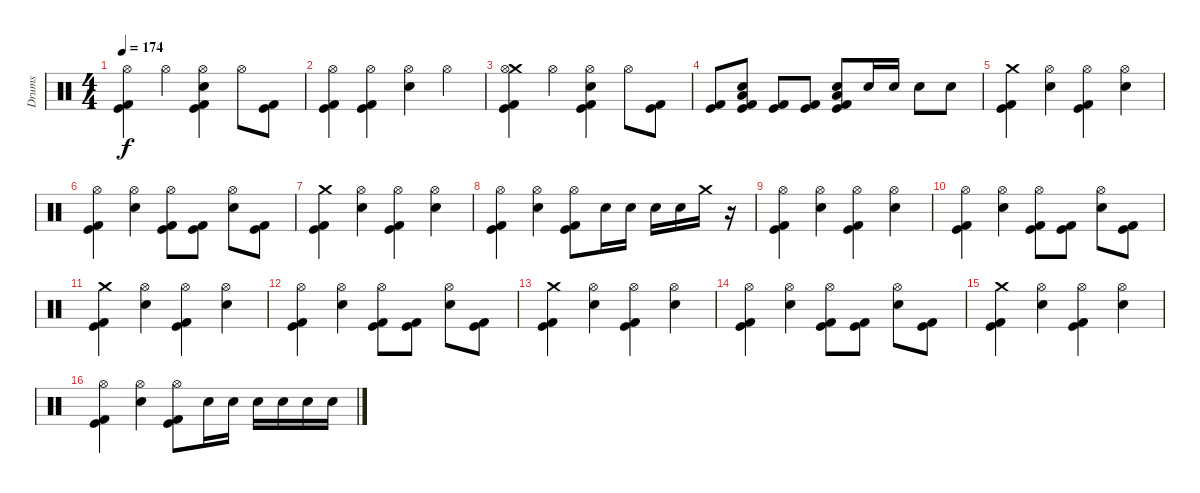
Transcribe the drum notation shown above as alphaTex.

\track ("Drums" "Drums") {instrument percussion}
\staff {score}
\articulation defaults
\ts (4 4)
\tempo 174
\clef neutral
\ks c
("Hi-Hat (open)" "Kick (hit) 2" "Kick (hit)").4{dy f} "Hi-Hat (open)".4 ("Hi-Hat (open)" "Electric Snare (hit)" "Kick (hit) 2" "Kick (hit)").4 "Hi-Hat (open)".8 ("Kick (hit) 2" "Kick (hit)").8 |
("Hi-Hat (open)" "Kick (hit) 2" "Kick (hit)").4 ("Hi-Hat (open)" "Kick (hit) 2" "Kick (hit)").4 ("Hi-Hat (open)" "Electric Snare (hit)").4 "Hi-Hat (open)".4 |
("Crash medium (hit)" "Hi-Hat (open)" "Kick (hit) 2" "Kick (hit)").4 "Hi-Hat (open)".4 ("Hi-Hat (open)" "Electric Snare (hit)" "Kick (hit) 2" "Kick (hit)").4 "Hi-Hat (open)".8 ("Kick (hit) 2" "Kick (hit)").8 |
("Kick (hit) 2" "Kick (hit)").8 ("Electric Snare (hit)" "Low Tom (hit)" "Kick (hit) 2" "Kick (hit)").8 ("Kick (hit) 2" "Kick (hit)").8 ("Kick (hit) 2" "Kick (hit)").8 ("Electric Snare (hit)" "Low Tom (hit)" "Kick (hit) 2" "Kick (hit)").8 "Electric Snare (hit)".16 "Electric Snare (hit)".16 "Electric Snare (hit)".8 "Electric Snare (hit)".8 |
("Crash medium (hit)" "Kick (hit) 2" "Kick (hit)").4 ("Hi-Hat (open)" "Electric Snare (hit)").4 ("Hi-Hat (open)" "Kick (hit) 2" "Kick (hit)").4 ("Hi-Hat (open)" "Electric Snare (hit)").4 |
("Hi-Hat (open)" "Kick (hit) 2" "Kick (hit)").4 ("Hi-Hat (open)" "Electric Snare (hit)").4 ("Hi-Hat (open)" "Kick (hit) 2" "Kick (hit)").8 ("Kick (hit) 2" "Kick (hit)").8 ("Hi-Hat (open)" "Electric Snare (hit)").8 ("Kick (hit) 2" "Kick (hit)").8 |
("Crash medium (hit)" "Kick (hit) 2" "Kick (hit)").4 ("Hi-Hat (open)" "Electric Snare (hit)").4 ("Hi-Hat (open)" "Kick (hit) 2" "Kick (hit)").4 ("Hi-Hat (open)" "Electric Snare (hit)").4 |
("Hi-Hat (open)" "Kick (hit) 2" "Kick (hit)").4 ("Hi-Hat (open)" "Electric Snare (hit)").4 ("Hi-Hat (open)" "Kick (hit) 2" "Kick (hit)").8 "Electric Snare (hit)".16 "Electric Snare (hit)".16 "Electric Snare (hit)".16 "Electric Snare (hit)".16 "Crash medium (hit)".16 r.16 |
("Hi-Hat (open)" "Kick (hit) 2" "Kick (hit)").4 ("Hi-Hat (open)" "Electric Snare (hit)").4 ("Hi-Hat (open)" "Kick (hit) 2" "Kick (hit)").4 ("Hi-Hat (open)" "Electric Snare (hit)").4 |
("Hi-Hat (open)" "Kick (hit) 2" "Kick (hit)").4 ("Hi-Hat (open)" "Electric Snare (hit)").4 ("Hi-Hat (open)" "Kick (hit) 2" "Kick (hit)").8 ("Kick (hit) 2" "Kick (hit)").8 ("Hi-Hat (open)" "Electric Snare (hit)").8 ("Kick (hit) 2" "Kick (hit)").8 |
("Crash medium (hit)" "Kick (hit) 2" "Kick (hit)").4 ("Hi-Hat (open)" "Electric Snare (hit)").4 ("Hi-Hat (open)" "Kick (hit) 2" "Kick (hit)").4 ("Hi-Hat (open)" "Electric Snare (hit)").4 |
("Hi-Hat (open)" "Kick (hit) 2" "Kick (hit)").4 ("Hi-Hat (open)" "Electric Snare (hit)").4 ("Hi-Hat (open)" "Kick (hit) 2" "Kick (hit)").8 ("Kick (hit) 2" "Kick (hit)").8 ("Hi-Hat (open)" "Electric Snare (hit)").8 ("Kick (hit) 2" "Kick (hit)").8 |
("Crash medium (hit)" "Kick (hit) 2" "Kick (hit)").4 ("Hi-Hat (open)" "Electric Snare (hit)").4 ("Hi-Hat (open)" "Kick (hit) 2" "Kick (hit)").4 ("Hi-Hat (open)" "Electric Snare (hit)").4 |
("Hi-Hat (open)" "Kick (hit) 2" "Kick (hit)").4 ("Hi-Hat (open)" "Electric Snare (hit)").4 ("Hi-Hat (open)" "Kick (hit) 2" "Kick (hit)").8 ("Kick (hit) 2" "Kick (hit)").8 ("Hi-Hat (open)" "Electric Snare (hit)").8 ("Kick (hit) 2" "Kick (hit)").8 |
("Crash medium (hit)" "Kick (hit) 2" "Kick (hit)").4 ("Hi-Hat (open)" "Electric Snare (hit)").4 ("Hi-Hat (open)" "Kick (hit) 2" "Kick (hit)").4 ("Hi-Hat (open)" "Electric Snare (hit)").4 |
("Hi-Hat (open)" "Kick (hit) 2" "Kick (hit)").4 ("Hi-Hat (open)" "Electric Snare (hit)").4 ("Hi-Hat (open)" "Kick (hit) 2" "Kick (hit)").8 "Electric Snare (hit)".16 "Electric Snare (hit)".16 "Electric Snare (hit)".16 "Electric Snare (hit)".16 "Electric Snare (hit)".16 "Electric Snare (hit)".16
